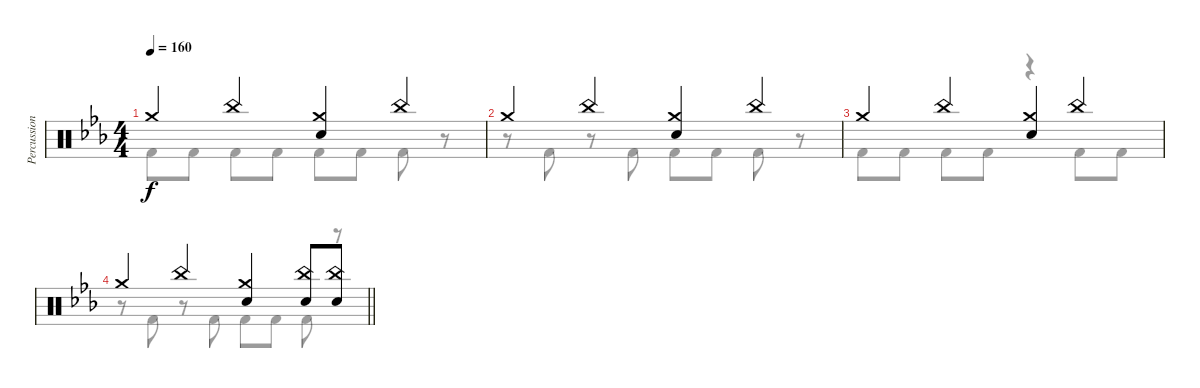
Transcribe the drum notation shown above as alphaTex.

\track ("Percussion" "Percussion") {instrument percussion}
\staff {score}
\articulation defaults
\voice
\ts (4 4)
\tempo 160
\clef neutral
\ks cminor "Crash medium (hit)".4{dy f} "China (hit)".4
("Crash medium (hit)" "Electric Snare (hit)").4 "China (hit)".4 |
"Crash medium (hit)".4 "China (hit)".4 ("Crash medium (hit)" "Electric Snare (hit)").4 "China (hit)".4 |
"Crash medium (hit)".4 "China (hit)".4 ("Crash medium (hit)" "Electric Snare (hit)").4 "China (hit)".4 |
\barLineRight lightlight "Crash medium (hit)".4 "China (hit)".4
("Crash medium (hit)" "Electric Snare (hit)").4 ("China (hit)" "Electric Snare (hit)").8 ("China (hit)" "Electric Snare (hit)").8
\voice
\clef neutral
\ottava regular
\simile none
\ks cminor "Kick (hit) 2".8{dy f} "Kick (hit) 2".8 "Kick (hit) 2".8 "Kick (hit) 2".8 "Kick (hit) 2".8 "Kick (hit) 2".8 "Kick (hit) 2".8
r.8 |
r.8 "Kick (hit) 2".8 r.8 "Kick (hit) 2".8 "Kick (hit) 2".8 "Kick (hit) 2".8 "Kick (hit) 2".8 r.8 |
"Kick (hit) 2".8 "Kick (hit) 2".8 "Kick (hit) 2".8 "Kick (hit) 2".8 r.4 "Kick (hit) 2".8 "Kick (hit) 2".8 |
\barLineRight lightlight
r.8 "Kick (hit) 2".8 r.8 "Kick (hit) 2".8 "Kick (hit) 2".8 "Kick (hit) 2".8 "Kick (hit) 2".8 r.8
